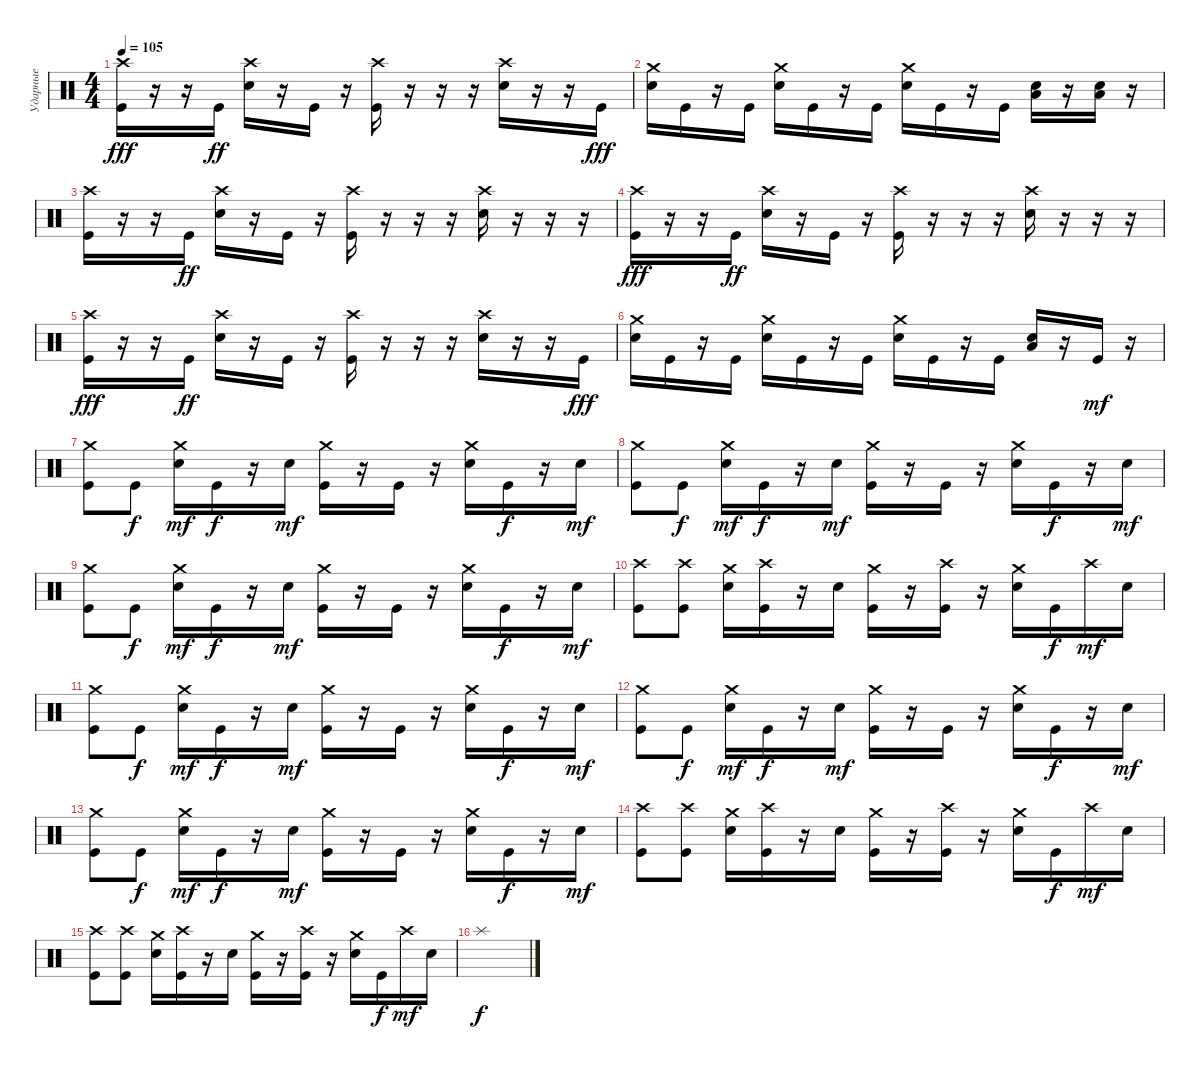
\track ("Ударные" "Ударные") {instrument percussion}
\staff {score}
\articulation defaults
\ts (4 4)
\tempo 105
\clef neutral
\ks c
("Crash high (hit)" "Kick (hit)").16{dy fff} r.16 r.16 "Kick (hit)".16{dy ff} ("Crash high (hit)" "Electric Snare (hit)").16 r.16 "Kick (hit)".16 r.16 ("Crash high (hit)" "Kick (hit)").16 r.16 r.16 r.16 ("Crash high (hit)" "Electric Snare (hit)").16 r.16 r.16 "Kick (hit)".16{dy fff} |
("Crash medium (hit)" "Electric Snare (hit)").16 "Kick (hit)".16 r.16 "Kick (hit)".16 ("Crash medium (hit)" "Electric Snare (hit)").16 "Kick (hit)".16 r.16 "Kick (hit)".16 ("Crash medium (hit)" "Electric Snare (hit)").16 "Kick (hit)".16 r.16 "Kick (hit)".16 ("Electric Snare (hit)" "Low Floor Tom (hit)").16 r.16 ("Electric Snare (hit)" "Low Floor Tom (hit)").16 r.16 |
("Crash high (hit)" "Kick (hit)").16 r.16 r.16 "Kick (hit)".16{dy ff} ("Crash high (hit)" "Electric Snare (hit)").16 r.16 "Kick (hit)".16 r.16 ("Crash high (hit)" "Kick (hit)").16 r.16 r.16 r.16 ("Crash high (hit)" "Electric Snare (hit)").16 r.16 r.16 r.16 |
("Crash high (hit)" "Kick (hit)").16{dy fff} r.16 r.16 "Kick (hit)".16{dy ff} ("Crash high (hit)" "Electric Snare (hit)").16 r.16 "Kick (hit)".16 r.16 ("Crash high (hit)" "Kick (hit)").16 r.16 r.16 r.16 ("Crash high (hit)" "Electric Snare (hit)").16 r.16 r.16 r.16 |
("Crash high (hit)" "Kick (hit)").16{dy fff} r.16 r.16 "Kick (hit)".16{dy ff} ("Crash high (hit)" "Electric Snare (hit)").16 r.16 "Kick (hit)".16 r.16 ("Crash high (hit)" "Kick (hit)").16 r.16 r.16 r.16 ("Crash high (hit)" "Electric Snare (hit)").16 r.16 r.16 "Kick (hit)".16{dy fff} |
("Crash medium (hit)" "Electric Snare (hit)").16 "Kick (hit)".16 r.16 "Kick (hit)".16 ("Crash medium (hit)" "Electric Snare (hit)").16 "Kick (hit)".16 r.16 "Kick (hit)".16 ("Crash medium (hit)" "Electric Snare (hit)").16 "Kick (hit)".16 r.16 "Kick (hit)".16 ("Electric Snare (hit)" "Low Floor Tom (hit)").16 r.16 "Kick (hit)".16{dy mf} r.16 |
("Crash medium (hit)" "Kick (hit)").8 "Kick (hit)".8{dy f} ("Crash medium (hit)" "Electric Snare (hit)").16{dy mf} "Kick (hit)".16{dy f} r.16 "Electric Snare (hit)".16{dy mf} ("Crash medium (hit)" "Kick (hit)").16 r.16 "Kick (hit)".16 r.16 ("Crash medium (hit)" "Electric Snare (hit)").16 "Kick (hit)".16{dy f} r.16 "Electric Snare (hit)".16{dy mf} |
("Crash medium (hit)" "Kick (hit)").8 "Kick (hit)".8{dy f} ("Crash medium (hit)" "Electric Snare (hit)").16{dy mf} "Kick (hit)".16{dy f} r.16 "Electric Snare (hit)".16{dy mf} ("Crash medium (hit)" "Kick (hit)").16 r.16 "Kick (hit)".16 r.16 ("Crash medium (hit)" "Electric Snare (hit)").16 "Kick (hit)".16{dy f} r.16 "Electric Snare (hit)".16{dy mf} |
("Crash medium (hit)" "Kick (hit)").8 "Kick (hit)".8{dy f} ("Crash medium (hit)" "Electric Snare (hit)").16{dy mf} "Kick (hit)".16{dy f} r.16 "Electric Snare (hit)".16{dy mf} ("Crash medium (hit)" "Kick (hit)").16 r.16 "Kick (hit)".16 r.16 ("Crash medium (hit)" "Electric Snare (hit)").16 "Kick (hit)".16{dy f} r.16 "Electric Snare (hit)".16{dy mf} |
("Crash high (hit)" "Kick (hit)").8 ("Crash high (hit)" "Kick (hit)").8 ("Crash medium (hit)" "Electric Snare (hit)").16 ("Crash high (hit)" "Kick (hit)").16 r.16 "Electric Snare (hit)".16 ("Crash medium (hit)" "Kick (hit)").16 r.16 ("Crash high (hit)" "Kick (hit)").16 r.16 ("Crash medium (hit)" "Electric Snare (hit)").16 "Kick (hit)".16{dy f} "Crash high (hit)".16{dy mf} "Electric Snare (hit)".16 |
("Crash medium (hit)" "Kick (hit)").8 "Kick (hit)".8{dy f} ("Crash medium (hit)" "Electric Snare (hit)").16{dy mf} "Kick (hit)".16{dy f} r.16 "Electric Snare (hit)".16{dy mf} ("Crash medium (hit)" "Kick (hit)").16 r.16 "Kick (hit)".16 r.16 ("Crash medium (hit)" "Electric Snare (hit)").16 "Kick (hit)".16{dy f} r.16 "Electric Snare (hit)".16{dy mf} |
("Crash medium (hit)" "Kick (hit)").8 "Kick (hit)".8{dy f} ("Crash medium (hit)" "Electric Snare (hit)").16{dy mf} "Kick (hit)".16{dy f} r.16 "Electric Snare (hit)".16{dy mf} ("Crash medium (hit)" "Kick (hit)").16 r.16 "Kick (hit)".16 r.16 ("Crash medium (hit)" "Electric Snare (hit)").16 "Kick (hit)".16{dy f} r.16 "Electric Snare (hit)".16{dy mf} |
("Crash medium (hit)" "Kick (hit)").8 "Kick (hit)".8{dy f} ("Crash medium (hit)" "Electric Snare (hit)").16{dy mf} "Kick (hit)".16{dy f} r.16 "Electric Snare (hit)".16{dy mf} ("Crash medium (hit)" "Kick (hit)").16 r.16 "Kick (hit)".16 r.16 ("Crash medium (hit)" "Electric Snare (hit)").16 "Kick (hit)".16{dy f} r.16 "Electric Snare (hit)".16{dy mf} |
("Crash high (hit)" "Kick (hit)").8 ("Crash high (hit)" "Kick (hit)").8 ("Crash medium (hit)" "Electric Snare (hit)").16 ("Crash high (hit)" "Kick (hit)").16 r.16 "Electric Snare (hit)".16 ("Crash medium (hit)" "Kick (hit)").16 r.16 ("Crash high (hit)" "Kick (hit)").16 r.16 ("Crash medium (hit)" "Electric Snare (hit)").16 "Kick (hit)".16{dy f} "Crash high (hit)".16{dy mf} "Electric Snare (hit)".16 |
("Crash high (hit)" "Kick (hit)").8 ("Crash high (hit)" "Kick (hit)").8 ("Crash medium (hit)" "Electric Snare (hit)").16 ("Crash high (hit)" "Kick (hit)").16 r.16 "Electric Snare (hit)".16 ("Crash medium (hit)" "Kick (hit)").16 r.16 ("Crash high (hit)" "Kick (hit)").16 r.16 ("Crash medium (hit)" "Electric Snare (hit)").16 "Kick (hit)".16{dy f} "Crash high (hit)".16{dy mf} "Electric Snare (hit)".16 |
"Splash (hit)".1{dy f}
